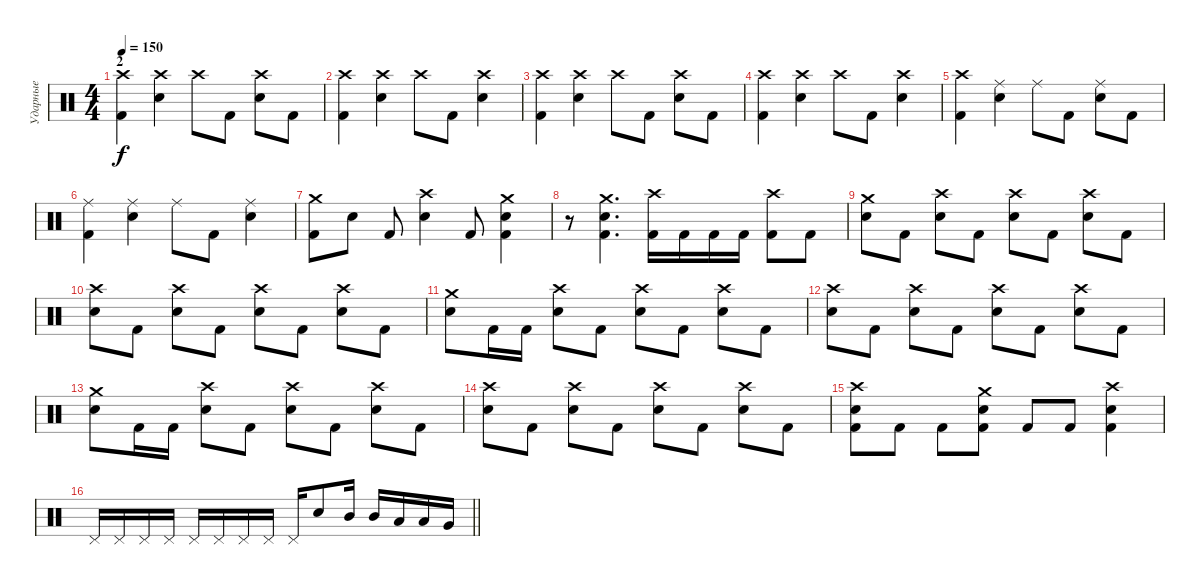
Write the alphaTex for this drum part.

\track ("Ударные" "Ударные") {instrument percussion}
\staff {score}
\articulation defaults
\ts (4 4)
\section ("" "2")
\tempo 150
\clef neutral
\ks c
("Crash high (hit)" "Kick (hit) 2").4{dy f} ("Crash high (hit)" "Electric Snare (hit)").4 "Crash high (hit)".8 "Kick (hit) 2".8 ("Crash high (hit)" "Electric Snare (hit)").8 "Kick (hit) 2".8 |
("Crash high (hit)" "Kick (hit) 2").4 ("Crash high (hit)" "Electric Snare (hit)").4 "Crash high (hit)".8 "Kick (hit) 2".8 ("Crash high (hit)" "Electric Snare (hit)").4 |
("Crash high (hit)" "Kick (hit) 2").4 ("Crash high (hit)" "Electric Snare (hit)").4 "Crash high (hit)".8 "Kick (hit) 2".8 ("Crash high (hit)" "Electric Snare (hit)").8 "Kick (hit) 2".8 |
("Crash high (hit)" "Kick (hit) 2").4 ("Crash high (hit)" "Electric Snare (hit)").4 "Crash high (hit)".8 "Kick (hit) 2".8 ("Crash high (hit)" "Electric Snare (hit)").4 |
("Crash high (hit)" "Kick (hit) 2").4 ("Ride (middle)" "Electric Snare (hit)").4 "Ride (middle)".8 "Kick (hit) 2".8 ("Ride (middle)" "Electric Snare (hit)").8 "Kick (hit) 2".8 |
("Ride (middle)" "Kick (hit) 2").4 ("Ride (middle)" "Electric Snare (hit)").4 "Ride (middle)".8 "Kick (hit) 2".8 ("Ride (middle)" "Electric Snare (hit)").4 |
("Crash medium (hit)" "Kick (hit) 2").8 "Electric Snare (hit)".8 "Kick (hit) 2".8 ("Crash high (hit)" "Snare (hit) 2").4 "Kick (hit) 2".8 ("Crash medium (hit)" "Electric Snare (hit)" "Kick (hit) 2").4 |
r.8 ("Crash medium (hit)" "Electric Snare (hit)" "Kick (hit) 2").4{d} ("Crash high (hit)" "Kick (hit) 2").16 "Kick (hit) 2".16 "Kick (hit) 2".16 "Kick (hit) 2".16 ("Crash high (hit)" "Kick (hit) 2").8 "Kick (hit) 2".8 |
("Crash medium (hit)" "Electric Snare (hit)").8 "Kick (hit) 2".8 ("Crash high (hit)" "Snare (hit) 2").8 "Kick (hit) 2".8 ("Crash high (hit)" "Snare (hit) 2").8 "Kick (hit) 2".8 ("Crash high (hit)" "Snare (hit) 2").8 "Kick (hit) 2".8 |
("Crash high (hit)" "Snare (hit) 2").8 "Kick (hit) 2".8 ("Crash high (hit)" "Snare (hit) 2").8 "Kick (hit) 2".8 ("Crash high (hit)" "Snare (hit) 2").8 "Kick (hit) 2".8 ("Crash high (hit)" "Snare (hit) 2").8 "Kick (hit) 2".8 |
("Crash medium (hit)" "Electric Snare (hit)").8 "Kick (hit) 2".16 "Kick (hit) 2".16 ("Crash high (hit)" "Snare (hit) 2").8 "Kick (hit) 2".8 ("Crash high (hit)" "Snare (hit) 2").8 "Kick (hit) 2".8 ("Crash high (hit)" "Snare (hit) 2").8 "Kick (hit) 2".8 |
("Crash high (hit)" "Snare (hit) 2").8 "Kick (hit) 2".8 ("Crash high (hit)" "Snare (hit) 2").8 "Kick (hit) 2".8 ("Crash high (hit)" "Snare (hit) 2").8 "Kick (hit) 2".8 ("Crash high (hit)" "Snare (hit) 2").8 "Kick (hit) 2".8 |
("Crash medium (hit)" "Electric Snare (hit)").8 "Kick (hit) 2".16 "Kick (hit) 2".16 ("Crash high (hit)" "Snare (hit) 2").8 "Kick (hit) 2".8 ("Crash high (hit)" "Snare (hit) 2").8 "Kick (hit) 2".8 ("Crash high (hit)" "Snare (hit) 2").8 "Kick (hit) 2".8 |
("Crash high (hit)" "Snare (hit) 2").8 "Kick (hit) 2".8 ("Crash high (hit)" "Snare (hit) 2").8 "Kick (hit) 2".8 ("Crash high (hit)" "Snare (hit) 2").8 "Kick (hit) 2".8 ("Crash high (hit)" "Snare (hit) 2").8 "Kick (hit) 2".8 |
("Crash high (hit)" "Electric Snare (hit)" "Kick (hit) 2").8 "Kick (hit) 2".8 "Kick (hit) 2".8 ("Crash medium (hit)" "Electric Snare (hit)" "Kick (hit) 2").8 "Kick (hit) 2".8 "Kick (hit) 2".8 ("Crash high (hit)" "Electric Snare (hit)" "Kick (hit) 2").4 |
\barLineRight lightlight "Pedal Hi-Hat (hit)".16 "Pedal Hi-Hat (hit)".16 "Pedal Hi-Hat (hit)".16 "Pedal Hi-Hat (hit)".16 "Pedal Hi-Hat (hit)".16 "Pedal Hi-Hat (hit)".16 "Pedal Hi-Hat (hit)".16 "Pedal Hi-Hat (hit)".16 "Pedal Hi-Hat (hit)".16 "Electric Snare (hit)".8 "Mid Tom (hit)".16 "Mid Tom (hit)".16 "Low Tom (hit)".16 "Low Tom (hit)".16 "Very Low Tom (hit)".16
